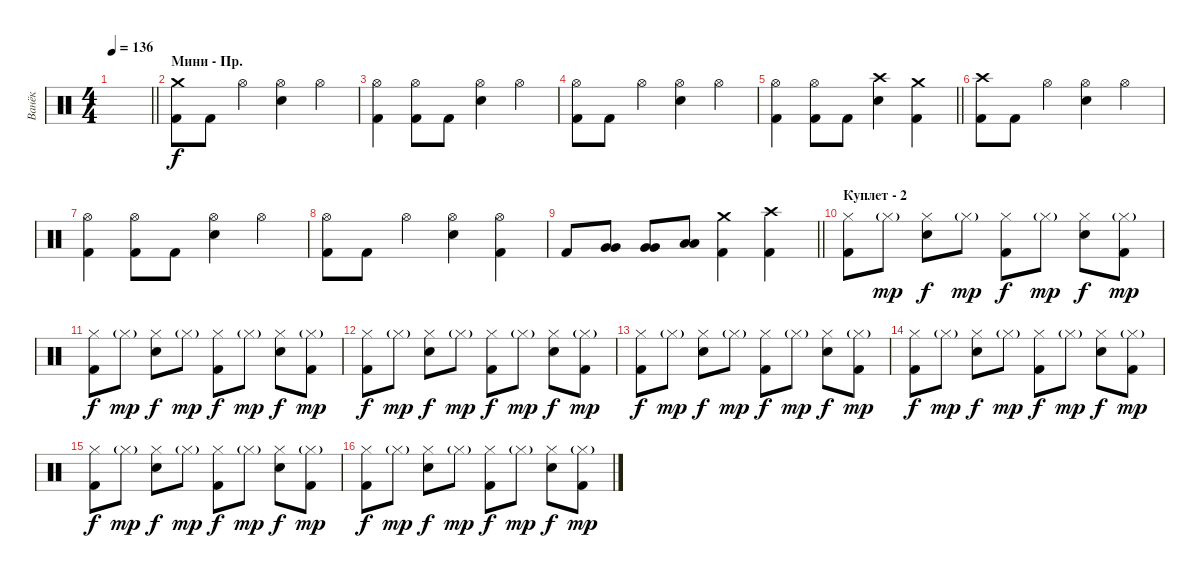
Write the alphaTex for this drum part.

\track ("Ванёк" "Ванёк") {instrument percussion}
\staff {score}
\articulation defaults
\ts (4 4)
\tempo 136
\clef neutral
\barLineRight lightlight
\ks c
|
\section ("" "Мини - Пр.")
("Crash medium (hit)" "Kick (hit) 2").8 "Kick (hit) 2".8 "Hi-Hat (open)".4 ("Hi-Hat (open)" "Snare (hit) 2").4 "Hi-Hat (open)".4 |
("Hi-Hat (open)" "Kick (hit) 2").4 ("Hi-Hat (open)" "Kick (hit) 2").8 "Kick (hit) 2".8 ("Hi-Hat (open)" "Snare (hit) 2").4 "Hi-Hat (open)".4 |
("Hi-Hat (open)" "Kick (hit) 2").8 "Kick (hit) 2".8 "Hi-Hat (open)".4 ("Hi-Hat (open)" "Snare (hit) 2").4 "Hi-Hat (open)".4 |
\barLineRight lightlight
("Hi-Hat (open)" "Kick (hit) 2").4 ("Hi-Hat (open)" "Kick (hit) 2").8 "Kick (hit) 2".8 ("Crash high (hit)" "Snare (hit) 2").4 ("Crash medium (hit)" "Kick (hit) 2").4 |
("Crash high (hit)" "Kick (hit) 2").8 "Kick (hit) 2".8 "Hi-Hat (open)".4 ("Hi-Hat (open)" "Snare (hit) 2").4 "Hi-Hat (open)".4 |
("Hi-Hat (open)" "Kick (hit) 2").4 ("Hi-Hat (open)" "Kick (hit) 2").8 "Kick (hit) 2".8 ("Hi-Hat (open)" "Snare (hit) 2").4 "Hi-Hat (open)".4 |
("Hi-Hat (open)" "Kick (hit) 2").8 "Kick (hit) 2".8 "Hi-Hat (open)".4 ("Hi-Hat (open)" "Snare (hit) 2").4 ("Hi-Hat (open)" "Kick (hit) 2").4 |
\barLineRight lightlight "Kick (hit) 2".8
("Very Low Tom (hit)" "Very Low Tom (hit)").8 ("Very Low Tom (hit)" "Very Low Tom (hit)").8 ("Low Tom (hit)" "Low Tom (hit)").8 ("Crash medium (hit)" "Kick (hit) 2").4 ("Crash high (hit)" "Kick (hit) 2").4 |
\section ("" "Куплет - 2")
("Hi-Hat (closed)" "Kick (hit) 2").8 "Hi-Hat (closed)"{g}.8{dy mp} ("Hi-Hat (closed)" "Snare (hit) 2").8{dy f} "Hi-Hat (closed)"{g}.8{dy mp} ("Hi-Hat (closed)" "Kick (hit) 2").8{dy f} "Hi-Hat (closed)"{g}.8{dy mp} ("Hi-Hat (closed)" "Snare (hit) 2").8{dy f} ("Hi-Hat (closed)"{g} "Kick (hit) 2").8{dy mp} |
("Hi-Hat (closed)" "Kick (hit) 2").8{dy f} "Hi-Hat (closed)"{g}.8{dy mp} ("Hi-Hat (closed)" "Snare (hit) 2").8{dy f} "Hi-Hat (closed)"{g}.8{dy mp} ("Hi-Hat (closed)" "Kick (hit) 2").8{dy f} "Hi-Hat (closed)"{g}.8{dy mp} ("Hi-Hat (closed)" "Snare (hit) 2").8{dy f} ("Hi-Hat (closed)"{g} "Kick (hit) 2").8{dy mp} |
("Hi-Hat (closed)" "Kick (hit) 2").8{dy f} "Hi-Hat (closed)"{g}.8{dy mp} ("Hi-Hat (closed)" "Snare (hit) 2").8{dy f} "Hi-Hat (closed)"{g}.8{dy mp} ("Hi-Hat (closed)" "Kick (hit) 2").8{dy f} "Hi-Hat (closed)"{g}.8{dy mp} ("Hi-Hat (closed)" "Snare (hit) 2").8{dy f} ("Hi-Hat (closed)"{g} "Kick (hit) 2").8{dy mp} |
("Hi-Hat (closed)" "Kick (hit) 2").8{dy f} "Hi-Hat (closed)"{g}.8{dy mp} ("Hi-Hat (closed)" "Snare (hit) 2").8{dy f} "Hi-Hat (closed)"{g}.8{dy mp} ("Hi-Hat (closed)" "Kick (hit) 2").8{dy f} "Hi-Hat (closed)"{g}.8{dy mp} ("Hi-Hat (closed)" "Snare (hit) 2").8{dy f} ("Hi-Hat (closed)"{g} "Kick (hit) 2").8{dy mp} |
("Hi-Hat (closed)" "Kick (hit) 2").8{dy f} "Hi-Hat (closed)"{g}.8{dy mp} ("Hi-Hat (closed)" "Snare (hit) 2").8{dy f} "Hi-Hat (closed)"{g}.8{dy mp} ("Hi-Hat (closed)" "Kick (hit) 2").8{dy f} "Hi-Hat (closed)"{g}.8{dy mp} ("Hi-Hat (closed)" "Snare (hit) 2").8{dy f} ("Hi-Hat (closed)"{g} "Kick (hit) 2").8{dy mp} |
("Hi-Hat (closed)" "Kick (hit) 2").8{dy f} "Hi-Hat (closed)"{g}.8{dy mp} ("Hi-Hat (closed)" "Snare (hit) 2").8{dy f} "Hi-Hat (closed)"{g}.8{dy mp} ("Hi-Hat (closed)" "Kick (hit) 2").8{dy f} "Hi-Hat (closed)"{g}.8{dy mp} ("Hi-Hat (closed)" "Snare (hit) 2").8{dy f} ("Hi-Hat (closed)"{g} "Kick (hit) 2").8{dy mp} |
("Hi-Hat (closed)" "Kick (hit) 2").8{dy f} "Hi-Hat (closed)"{g}.8{dy mp} ("Hi-Hat (closed)" "Snare (hit) 2").8{dy f} "Hi-Hat (closed)"{g}.8{dy mp} ("Hi-Hat (closed)" "Kick (hit) 2").8{dy f} "Hi-Hat (closed)"{g}.8{dy mp} ("Hi-Hat (closed)" "Snare (hit) 2").8{dy f} ("Hi-Hat (closed)"{g} "Kick (hit) 2").8{dy mp}
